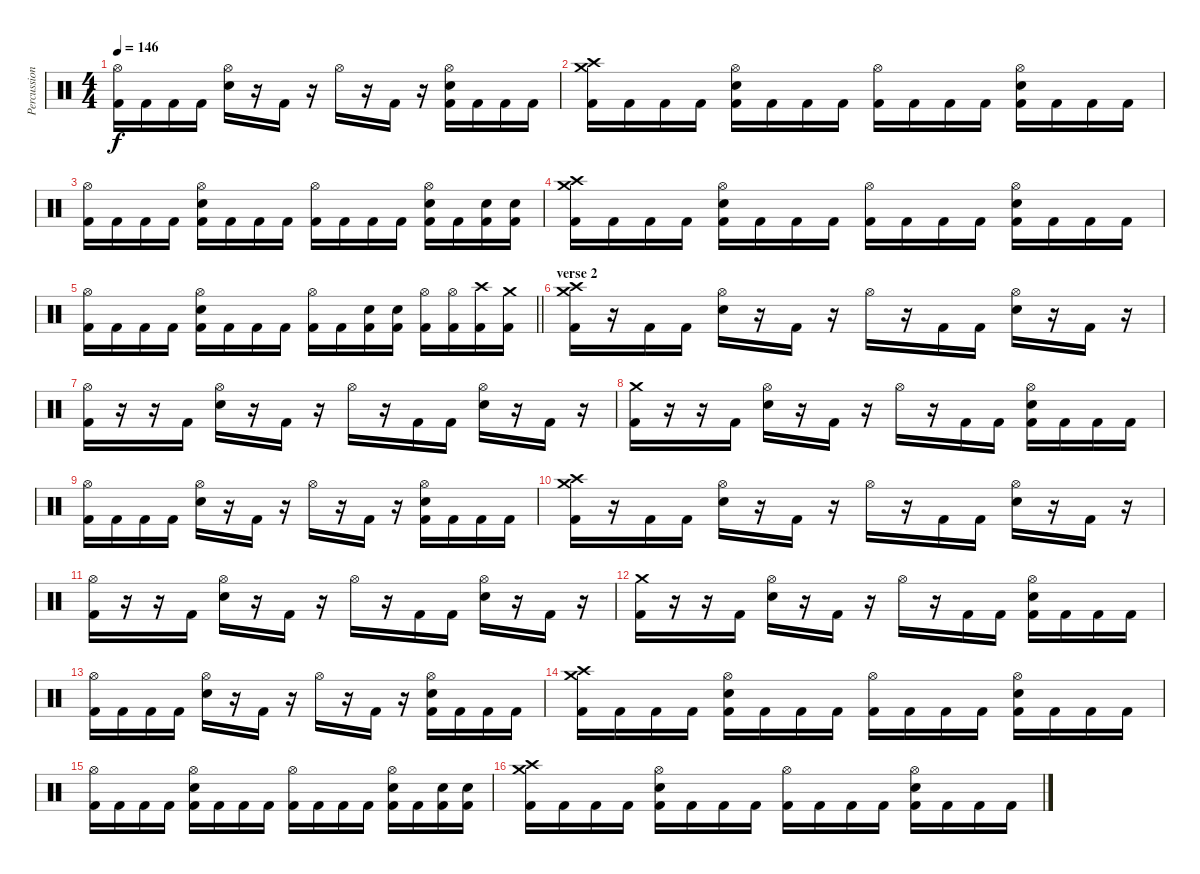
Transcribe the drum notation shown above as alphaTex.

\track ("Percussion" "Percussion") {instrument percussion}
\staff {score}
\articulation defaults
\ts (4 4)
\tempo 146
\clef neutral
\ks c
("Hi-Hat (open)" "Kick (hit) 2").16{dy f} "Kick (hit) 2".16 "Kick (hit) 2".16 "Kick (hit) 2".16 ("Hi-Hat (open)" "Snare (hit) 2").16 r.16 "Kick (hit) 2".16 r.16 "Hi-Hat (open)".16 r.16 "Kick (hit) 2".16 r.16 ("Hi-Hat (open)" "Snare (hit) 2" "Kick (hit) 2").16 "Kick (hit) 2".16 "Kick (hit) 2".16 "Kick (hit) 2".16 |
("Crash high (hit)" "Crash medium (hit)" "Kick (hit) 2").16 "Kick (hit) 2".16 "Kick (hit) 2".16 "Kick (hit) 2".16 ("Hi-Hat (open)" "Snare (hit) 2" "Kick (hit) 2").16 "Kick (hit) 2".16 "Kick (hit) 2".16 "Kick (hit) 2".16 ("Hi-Hat (open)" "Kick (hit) 2").16 "Kick (hit) 2".16 "Kick (hit) 2".16 "Kick (hit) 2".16 ("Hi-Hat (open)" "Snare (hit) 2" "Kick (hit) 2").16 "Kick (hit) 2".16 "Kick (hit) 2".16 "Kick (hit) 2".16 |
("Hi-Hat (open)" "Kick (hit) 2").16 "Kick (hit) 2".16 "Kick (hit) 2".16 "Kick (hit) 2".16 ("Hi-Hat (open)" "Snare (hit) 2" "Kick (hit) 2").16 "Kick (hit) 2".16 "Kick (hit) 2".16 "Kick (hit) 2".16 ("Hi-Hat (open)" "Kick (hit) 2").16 "Kick (hit) 2".16 "Kick (hit) 2".16 "Kick (hit) 2".16 ("Hi-Hat (open)" "Snare (hit) 2" "Kick (hit) 2").16 "Kick (hit) 2".16 ("Snare (hit) 2" "Kick (hit) 2").16 ("Snare (hit) 2" "Kick (hit) 2").16 |
("Crash high (hit)" "Crash medium (hit)" "Kick (hit) 2").16 "Kick (hit) 2".16 "Kick (hit) 2".16 "Kick (hit) 2".16 ("Hi-Hat (open)" "Snare (hit) 2" "Kick (hit) 2").16 "Kick (hit) 2".16 "Kick (hit) 2".16 "Kick (hit) 2".16 ("Hi-Hat (open)" "Kick (hit) 2").16 "Kick (hit) 2".16 "Kick (hit) 2".16 "Kick (hit) 2".16 ("Hi-Hat (open)" "Snare (hit) 2" "Kick (hit) 2").16 "Kick (hit) 2".16 "Kick (hit) 2".16 "Kick (hit) 2".16 |
\barLineRight lightlight
("Hi-Hat (open)" "Kick (hit) 2").16 "Kick (hit) 2".16 "Kick (hit) 2".16 "Kick (hit) 2".16 ("Hi-Hat (open)" "Snare (hit) 2" "Kick (hit) 2").16 "Kick (hit) 2".16 "Kick (hit) 2".16 "Kick (hit) 2".16 ("Hi-Hat (open)" "Kick (hit) 2").16 "Kick (hit) 2".16 ("Snare (hit) 2" "Kick (hit) 2").16 ("Snare (hit) 2" "Kick (hit) 2").16 ("Hi-Hat (open)" "Kick (hit) 2").16 ("Hi-Hat (open)" "Kick (hit) 2").16 ("Crash high (hit)" "Kick (hit) 2").16 ("Crash medium (hit)" "Kick (hit) 2").16 |
\section ("" "verse 2")
("Crash high (hit)" "Crash medium (hit)" "Kick (hit) 2").16 r.16 "Kick (hit) 2".16 "Kick (hit) 2".16 ("Hi-Hat (open)" "Snare (hit) 2").16 r.16 "Kick (hit) 2".16 r.16 "Hi-Hat (open)".16 r.16 "Kick (hit) 2".16 "Kick (hit) 2".16 ("Hi-Hat (open)" "Snare (hit) 2").16 r.16 "Kick (hit) 2".16 r.16 |
("Hi-Hat (open)" "Kick (hit) 2").16 r.16 r.16 "Kick (hit) 2".16 ("Hi-Hat (open)" "Snare (hit) 2").16 r.16 "Kick (hit) 2".16 r.16 "Hi-Hat (open)".16 r.16 "Kick (hit) 2".16 "Kick (hit) 2".16 ("Hi-Hat (open)" "Snare (hit) 2").16 r.16 "Kick (hit) 2".16 r.16 |
("Crash medium (hit)" "Kick (hit) 2").16 r.16 r.16 "Kick (hit) 2".16 ("Hi-Hat (open)" "Snare (hit) 2").16 r.16 "Kick (hit) 2".16 r.16 "Hi-Hat (open)".16 r.16 "Kick (hit) 2".16 "Kick (hit) 2".16 ("Hi-Hat (open)" "Snare (hit) 2" "Kick (hit) 2").16 "Kick (hit) 2".16 "Kick (hit) 2".16 "Kick (hit) 2".16 |
("Hi-Hat (open)" "Kick (hit) 2").16 "Kick (hit) 2".16 "Kick (hit) 2".16 "Kick (hit) 2".16 ("Hi-Hat (open)" "Snare (hit) 2").16 r.16 "Kick (hit) 2".16 r.16 "Hi-Hat (open)".16 r.16 "Kick (hit) 2".16 r.16 ("Hi-Hat (open)" "Snare (hit) 2" "Kick (hit) 2").16 "Kick (hit) 2".16 "Kick (hit) 2".16 "Kick (hit) 2".16 |
("Crash high (hit)" "Crash medium (hit)" "Kick (hit) 2").16 r.16 "Kick (hit) 2".16 "Kick (hit) 2".16 ("Hi-Hat (open)" "Snare (hit) 2").16 r.16 "Kick (hit) 2".16 r.16 "Hi-Hat (open)".16 r.16 "Kick (hit) 2".16 "Kick (hit) 2".16 ("Hi-Hat (open)" "Snare (hit) 2").16 r.16 "Kick (hit) 2".16 r.16 |
("Hi-Hat (open)" "Kick (hit) 2").16 r.16 r.16 "Kick (hit) 2".16 ("Hi-Hat (open)" "Snare (hit) 2").16 r.16 "Kick (hit) 2".16 r.16 "Hi-Hat (open)".16 r.16 "Kick (hit) 2".16 "Kick (hit) 2".16 ("Hi-Hat (open)" "Snare (hit) 2").16 r.16 "Kick (hit) 2".16 r.16 |
("Crash medium (hit)" "Kick (hit) 2").16 r.16 r.16 "Kick (hit) 2".16 ("Hi-Hat (open)" "Snare (hit) 2").16 r.16 "Kick (hit) 2".16 r.16 "Hi-Hat (open)".16 r.16 "Kick (hit) 2".16 "Kick (hit) 2".16 ("Hi-Hat (open)" "Snare (hit) 2" "Kick (hit) 2").16 "Kick (hit) 2".16 "Kick (hit) 2".16 "Kick (hit) 2".16 |
("Hi-Hat (open)" "Kick (hit) 2").16 "Kick (hit) 2".16 "Kick (hit) 2".16 "Kick (hit) 2".16 ("Hi-Hat (open)" "Snare (hit) 2").16 r.16 "Kick (hit) 2".16 r.16 "Hi-Hat (open)".16 r.16 "Kick (hit) 2".16 r.16 ("Hi-Hat (open)" "Snare (hit) 2" "Kick (hit) 2").16 "Kick (hit) 2".16 "Kick (hit) 2".16 "Kick (hit) 2".16 |
("Crash high (hit)" "Crash medium (hit)" "Kick (hit) 2").16 "Kick (hit) 2".16 "Kick (hit) 2".16 "Kick (hit) 2".16 ("Hi-Hat (open)" "Snare (hit) 2" "Kick (hit) 2").16 "Kick (hit) 2".16 "Kick (hit) 2".16 "Kick (hit) 2".16 ("Hi-Hat (open)" "Kick (hit) 2").16 "Kick (hit) 2".16 "Kick (hit) 2".16 "Kick (hit) 2".16 ("Hi-Hat (open)" "Snare (hit) 2" "Kick (hit) 2").16 "Kick (hit) 2".16 "Kick (hit) 2".16 "Kick (hit) 2".16 |
("Hi-Hat (open)" "Kick (hit) 2").16 "Kick (hit) 2".16 "Kick (hit) 2".16 "Kick (hit) 2".16 ("Hi-Hat (open)" "Snare (hit) 2" "Kick (hit) 2").16 "Kick (hit) 2".16 "Kick (hit) 2".16 "Kick (hit) 2".16 ("Hi-Hat (open)" "Kick (hit) 2").16 "Kick (hit) 2".16 "Kick (hit) 2".16 "Kick (hit) 2".16 ("Hi-Hat (open)" "Snare (hit) 2" "Kick (hit) 2").16 "Kick (hit) 2".16 ("Snare (hit) 2" "Kick (hit) 2").16 ("Snare (hit) 2" "Kick (hit) 2").16 |
("Crash high (hit)" "Crash medium (hit)" "Kick (hit) 2").16 "Kick (hit) 2".16 "Kick (hit) 2".16 "Kick (hit) 2".16 ("Hi-Hat (open)" "Snare (hit) 2" "Kick (hit) 2").16 "Kick (hit) 2".16 "Kick (hit) 2".16 "Kick (hit) 2".16 ("Hi-Hat (open)" "Kick (hit) 2").16 "Kick (hit) 2".16 "Kick (hit) 2".16 "Kick (hit) 2".16 ("Hi-Hat (open)" "Snare (hit) 2" "Kick (hit) 2").16 "Kick (hit) 2".16 "Kick (hit) 2".16 "Kick (hit) 2".16
